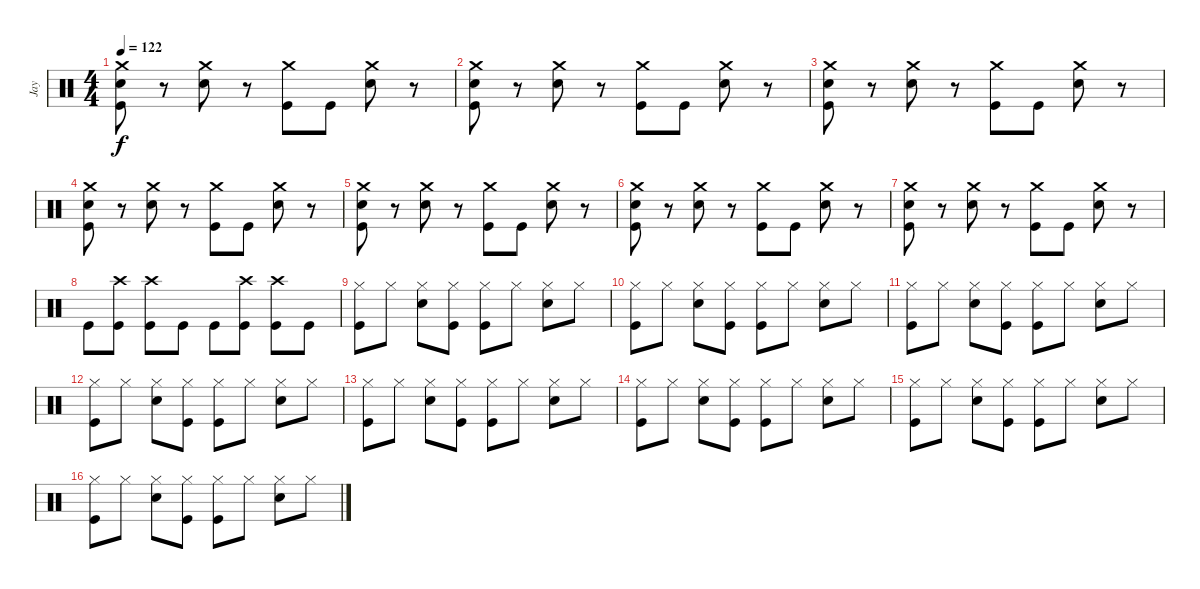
\track ("Jay" "Jay") {instrument percussion}
\staff {score}
\articulation defaults
\ts (4 4)
\tempo 122
\clef neutral
\ks c
("Crash medium (hit)" "Kick (hit)" "Snare (hit)").8{dy f} r.8 ("Crash medium (hit)" "Electric Snare (hit)").8 r.8 ("Crash medium (hit)" "Kick (hit)").8 "Kick (hit)".8 ("Crash medium (hit)" "Electric Snare (hit)").8 r.8 |
("Crash medium (hit)" "Kick (hit)" "Snare (hit)").8 r.8 ("Crash medium (hit)" "Electric Snare (hit)").8 r.8 ("Crash medium (hit)" "Kick (hit)").8 "Kick (hit)".8 ("Crash medium (hit)" "Electric Snare (hit)").8 r.8 |
("Crash medium (hit)" "Kick (hit)" "Snare (hit)").8 r.8 ("Crash medium (hit)" "Electric Snare (hit)").8 r.8 ("Crash medium (hit)" "Kick (hit)").8 "Kick (hit)".8 ("Crash medium (hit)" "Electric Snare (hit)").8 r.8 |
("Crash medium (hit)" "Kick (hit)" "Snare (hit)").8 r.8 ("Crash medium (hit)" "Electric Snare (hit)").8 r.8 ("Crash medium (hit)" "Kick (hit)").8 "Kick (hit)".8 ("Crash medium (hit)" "Electric Snare (hit)").8 r.8 |
("Crash medium (hit)" "Kick (hit)" "Snare (hit)").8 r.8 ("Crash medium (hit)" "Electric Snare (hit)").8 r.8 ("Crash medium (hit)" "Kick (hit)").8 "Kick (hit)".8 ("Crash medium (hit)" "Electric Snare (hit)").8 r.8 |
("Crash medium (hit)" "Kick (hit)" "Snare (hit)").8 r.8 ("Crash medium (hit)" "Electric Snare (hit)").8 r.8 ("Crash medium (hit)" "Kick (hit)").8 "Kick (hit)".8 ("Crash medium (hit)" "Electric Snare (hit)").8 r.8 |
("Crash medium (hit)" "Kick (hit)" "Snare (hit)").8 r.8 ("Crash medium (hit)" "Electric Snare (hit)").8 r.8 ("Crash medium (hit)" "Kick (hit)").8 "Kick (hit)".8 ("Crash medium (hit)" "Electric Snare (hit)").8 r.8 |
"Kick (hit)".8 ("Crash high (hit)" "Kick (hit)").8 ("Crash high (hit)" "Kick (hit)").8 "Kick (hit)".8 "Kick (hit)".8 ("Crash high (hit)" "Kick (hit)").8 ("Crash high (hit)" "Kick (hit)").8 "Kick (hit)".8 |
("Hi-Hat (closed)" "Kick (hit)").8 "Hi-Hat (closed)".8 ("Hi-Hat (closed)" "Electric Snare (hit)").8 ("Hi-Hat (closed)" "Kick (hit)").8 ("Hi-Hat (closed)" "Kick (hit)").8 "Hi-Hat (closed)".8 ("Hi-Hat (closed)" "Electric Snare (hit)").8 "Hi-Hat (closed)".8 |
("Hi-Hat (closed)" "Kick (hit)").8 "Hi-Hat (closed)".8 ("Hi-Hat (closed)" "Electric Snare (hit)").8 ("Hi-Hat (closed)" "Kick (hit)").8 ("Hi-Hat (closed)" "Kick (hit)").8 "Hi-Hat (closed)".8 ("Hi-Hat (closed)" "Electric Snare (hit)").8 "Hi-Hat (closed)".8 |
("Hi-Hat (closed)" "Kick (hit)").8 "Hi-Hat (closed)".8 ("Hi-Hat (closed)" "Electric Snare (hit)").8 ("Hi-Hat (closed)" "Kick (hit)").8 ("Hi-Hat (closed)" "Kick (hit)").8 "Hi-Hat (closed)".8 ("Hi-Hat (closed)" "Electric Snare (hit)").8 "Hi-Hat (closed)".8 |
("Hi-Hat (closed)" "Kick (hit)").8 "Hi-Hat (closed)".8 ("Hi-Hat (closed)" "Electric Snare (hit)").8 ("Hi-Hat (closed)" "Kick (hit)").8 ("Hi-Hat (closed)" "Kick (hit)").8 "Hi-Hat (closed)".8 ("Hi-Hat (closed)" "Electric Snare (hit)").8 "Hi-Hat (closed)".8 |
("Hi-Hat (closed)" "Kick (hit)").8 "Hi-Hat (closed)".8 ("Hi-Hat (closed)" "Electric Snare (hit)").8 ("Hi-Hat (closed)" "Kick (hit)").8 ("Hi-Hat (closed)" "Kick (hit)").8 "Hi-Hat (closed)".8 ("Hi-Hat (closed)" "Electric Snare (hit)").8 "Hi-Hat (closed)".8 |
("Hi-Hat (closed)" "Kick (hit)").8 "Hi-Hat (closed)".8 ("Hi-Hat (closed)" "Electric Snare (hit)").8 ("Hi-Hat (closed)" "Kick (hit)").8 ("Hi-Hat (closed)" "Kick (hit)").8 "Hi-Hat (closed)".8 ("Hi-Hat (closed)" "Electric Snare (hit)").8 "Hi-Hat (closed)".8 |
("Hi-Hat (closed)" "Kick (hit)").8 "Hi-Hat (closed)".8 ("Hi-Hat (closed)" "Electric Snare (hit)").8 ("Hi-Hat (closed)" "Kick (hit)").8 ("Hi-Hat (closed)" "Kick (hit)").8 "Hi-Hat (closed)".8 ("Hi-Hat (closed)" "Electric Snare (hit)").8 "Hi-Hat (closed)".8 |
("Hi-Hat (closed)" "Kick (hit)").8 "Hi-Hat (closed)".8 ("Hi-Hat (closed)" "Electric Snare (hit)").8 ("Hi-Hat (closed)" "Kick (hit)").8 ("Hi-Hat (closed)" "Kick (hit)").8 "Hi-Hat (closed)".8 ("Hi-Hat (closed)" "Electric Snare (hit)").8 "Hi-Hat (closed)".8
